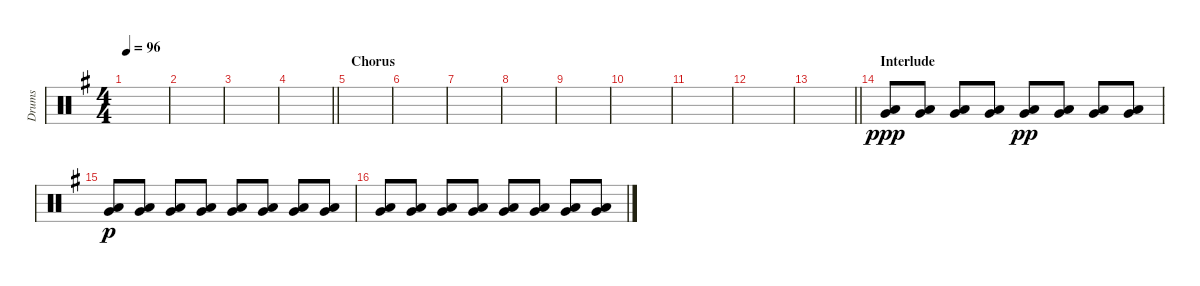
\track ("Drums" "Drums") {instrument percussion}
\staff {score}
\articulation defaults
\ts (4 4)
\tempo 96
\clef neutral
\ks g
|
|
|
\barLineRight lightlight
|
\section ("" "Chorus ")
|
|
|
|
|
|
|
|
\barLineRight lightlight
|
\section ("" "Interlude")
("Low Tom (hit)" "Very Low Tom (hit)").8{dy ppp} ("Low Tom (hit)" "Very Low Tom (hit)").8 ("Low Tom (hit)" "Very Low Tom (hit)").8 ("Low Tom (hit)" "Very Low Tom (hit)").8 ("Low Tom (hit)" "Very Low Tom (hit)").8{dy pp} ("Low Tom (hit)" "Very Low Tom (hit)").8 ("Low Tom (hit)" "Very Low Tom (hit)").8 ("Low Tom (hit)" "Very Low Tom (hit)").8 |
("Low Tom (hit)" "Very Low Tom (hit)").8{dy p} ("Low Tom (hit)" "Very Low Tom (hit)").8 ("Low Tom (hit)" "Very Low Tom (hit)").8 ("Low Tom (hit)" "Very Low Tom (hit)").8 ("Low Tom (hit)" "Very Low Tom (hit)").8 ("Low Tom (hit)" "Very Low Tom (hit)").8 ("Low Tom (hit)" "Very Low Tom (hit)").8 ("Low Tom (hit)" "Very Low Tom (hit)").8 |
("Low Tom (hit)" "Very Low Tom (hit)").8 ("Low Tom (hit)" "Very Low Tom (hit)").8 ("Low Tom (hit)" "Very Low Tom (hit)").8 ("Low Tom (hit)" "Very Low Tom (hit)").8 ("Low Tom (hit)" "Very Low Tom (hit)").8 ("Low Tom (hit)" "Very Low Tom (hit)").8 ("Low Tom (hit)" "Very Low Tom (hit)").8 ("Low Tom (hit)" "Very Low Tom (hit)").8
